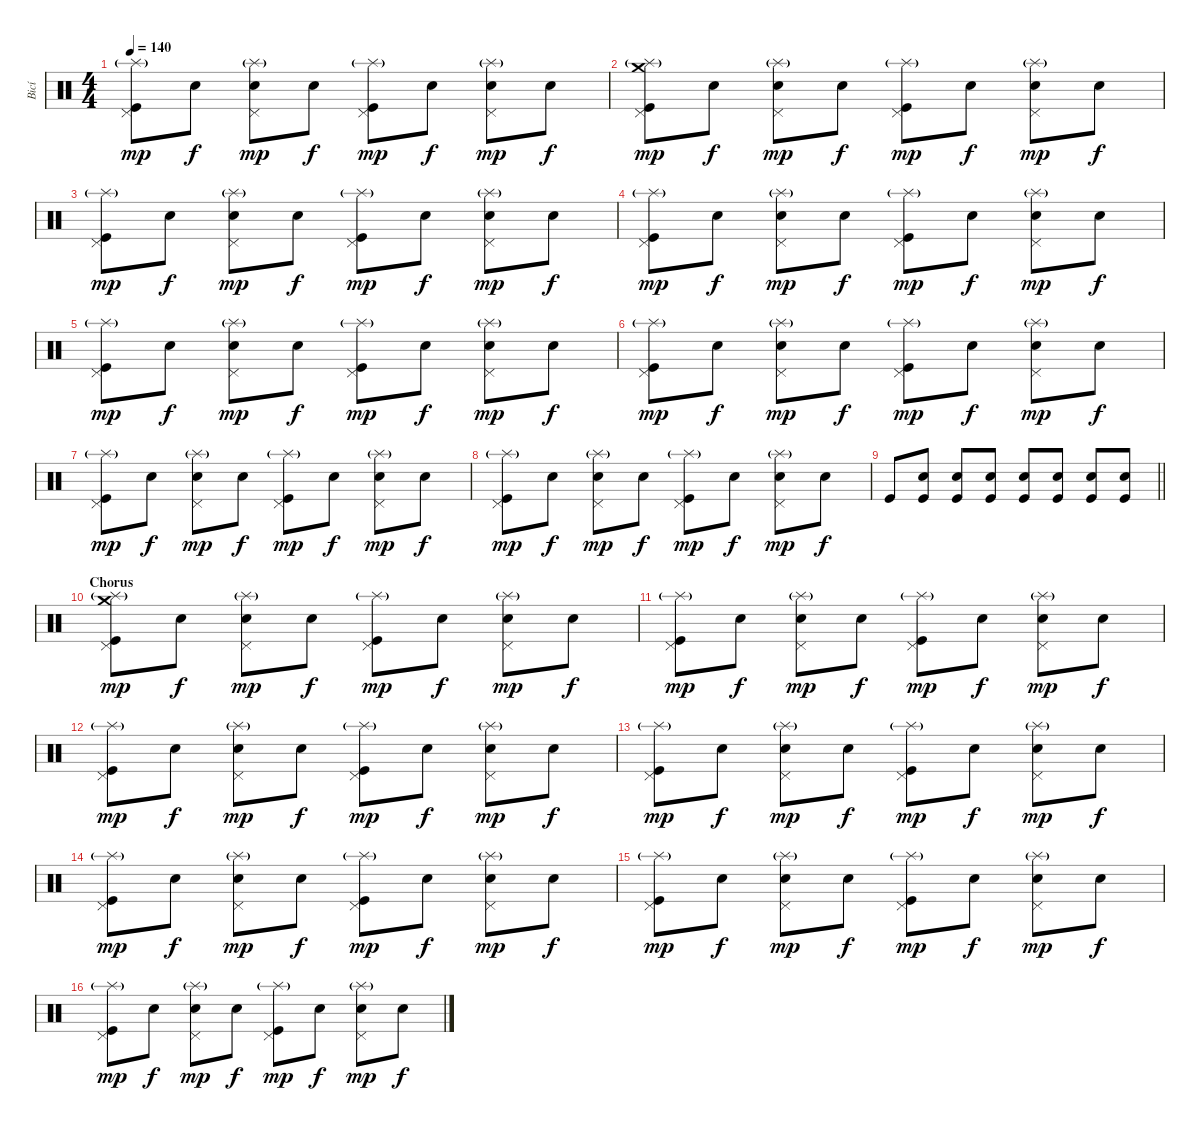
\track ("Bicí" "Bicí") {instrument percussion}
\staff {score}
\articulation defaults
\ts (4 4)
\tempo 140
\clef neutral
\ks c
("Splash (hit)"{g} "Pedal Hi-Hat (hit)" "Kick (hit)").8{dy mp} "Snare (hit)".8{dy f} ("Splash (hit)"{g} "Pedal Hi-Hat (hit)" "Electric Snare (hit)").8{dy mp} "Snare (hit)".8{dy f} ("Splash (hit)"{g} "Pedal Hi-Hat (hit)" "Kick (hit)").8{dy mp} "Snare (hit)".8{dy f} ("Splash (hit)"{g} "Pedal Hi-Hat (hit)" "Electric Snare (hit)").8{dy mp} "Snare (hit)".8{dy f} |
("Crash medium (hit)" "Splash (hit)"{g} "Pedal Hi-Hat (hit)" "Kick (hit)").8{dy mp} "Snare (hit)".8{dy f} ("Splash (hit)"{g} "Pedal Hi-Hat (hit)" "Electric Snare (hit)").8{dy mp} "Snare (hit)".8{dy f} ("Splash (hit)"{g} "Pedal Hi-Hat (hit)" "Kick (hit)").8{dy mp} "Snare (hit)".8{dy f} ("Splash (hit)"{g} "Pedal Hi-Hat (hit)" "Electric Snare (hit)").8{dy mp} "Snare (hit)".8{dy f} |
("Splash (hit)"{g} "Pedal Hi-Hat (hit)" "Kick (hit)").8{dy mp} "Snare (hit)".8{dy f} ("Splash (hit)"{g} "Pedal Hi-Hat (hit)" "Electric Snare (hit)").8{dy mp} "Snare (hit)".8{dy f} ("Splash (hit)"{g} "Pedal Hi-Hat (hit)" "Kick (hit)").8{dy mp} "Snare (hit)".8{dy f} ("Splash (hit)"{g} "Pedal Hi-Hat (hit)" "Electric Snare (hit)").8{dy mp} "Snare (hit)".8{dy f} |
("Splash (hit)"{g} "Pedal Hi-Hat (hit)" "Kick (hit)").8{dy mp} "Snare (hit)".8{dy f} ("Splash (hit)"{g} "Pedal Hi-Hat (hit)" "Electric Snare (hit)").8{dy mp} "Snare (hit)".8{dy f} ("Splash (hit)"{g} "Pedal Hi-Hat (hit)" "Kick (hit)").8{dy mp} "Snare (hit)".8{dy f} ("Splash (hit)"{g} "Pedal Hi-Hat (hit)" "Electric Snare (hit)").8{dy mp} "Snare (hit)".8{dy f} |
("Splash (hit)"{g} "Pedal Hi-Hat (hit)" "Kick (hit)").8{dy mp} "Snare (hit)".8{dy f} ("Splash (hit)"{g} "Pedal Hi-Hat (hit)" "Electric Snare (hit)").8{dy mp} "Snare (hit)".8{dy f} ("Splash (hit)"{g} "Pedal Hi-Hat (hit)" "Kick (hit)").8{dy mp} "Snare (hit)".8{dy f} ("Splash (hit)"{g} "Pedal Hi-Hat (hit)" "Electric Snare (hit)").8{dy mp} "Snare (hit)".8{dy f} |
("Splash (hit)"{g} "Pedal Hi-Hat (hit)" "Kick (hit)").8{dy mp} "Snare (hit)".8{dy f} ("Splash (hit)"{g} "Pedal Hi-Hat (hit)" "Electric Snare (hit)").8{dy mp} "Snare (hit)".8{dy f} ("Splash (hit)"{g} "Pedal Hi-Hat (hit)" "Kick (hit)").8{dy mp} "Snare (hit)".8{dy f} ("Splash (hit)"{g} "Pedal Hi-Hat (hit)" "Electric Snare (hit)").8{dy mp} "Snare (hit)".8{dy f} |
("Splash (hit)"{g} "Pedal Hi-Hat (hit)" "Kick (hit)").8{dy mp} "Snare (hit)".8{dy f} ("Splash (hit)"{g} "Pedal Hi-Hat (hit)" "Electric Snare (hit)").8{dy mp} "Snare (hit)".8{dy f} ("Splash (hit)"{g} "Pedal Hi-Hat (hit)" "Kick (hit)").8{dy mp} "Snare (hit)".8{dy f} ("Splash (hit)"{g} "Pedal Hi-Hat (hit)" "Electric Snare (hit)").8{dy mp} "Snare (hit)".8{dy f} |
("Splash (hit)"{g} "Pedal Hi-Hat (hit)" "Kick (hit)").8{dy mp} "Snare (hit)".8{dy f} ("Splash (hit)"{g} "Pedal Hi-Hat (hit)" "Electric Snare (hit)").8{dy mp} "Snare (hit)".8{dy f} ("Splash (hit)"{g} "Pedal Hi-Hat (hit)" "Kick (hit)").8{dy mp} "Snare (hit)".8{dy f} ("Splash (hit)"{g} "Pedal Hi-Hat (hit)" "Electric Snare (hit)").8{dy mp} "Snare (hit)".8{dy f} |
\barLineRight lightlight "Kick (hit)".8{volume 0}
("Kick (hit)" "Electric Snare (hit)").8{volume 16} ("Kick (hit)" "Electric Snare (hit)").8 ("Kick (hit)" "Electric Snare (hit)").8 ("Kick (hit)" "Electric Snare (hit)").8 ("Kick (hit)" "Electric Snare (hit)").8 ("Kick (hit)" "Electric Snare (hit)").8 ("Kick (hit)" "Electric Snare (hit)").8 |
\section ("" "Chorus")
("Crash medium (hit)" "Splash (hit)"{g} "Pedal Hi-Hat (hit)" "Kick (hit)").8{dy mp} "Snare (hit)".8{dy f} ("Splash (hit)"{g} "Pedal Hi-Hat (hit)" "Electric Snare (hit)").8{dy mp} "Snare (hit)".8{dy f} ("Splash (hit)"{g} "Pedal Hi-Hat (hit)" "Kick (hit)").8{dy mp} "Snare (hit)".8{dy f} ("Splash (hit)"{g} "Pedal Hi-Hat (hit)" "Electric Snare (hit)").8{dy mp} "Snare (hit)".8{dy f} |
("Splash (hit)"{g} "Pedal Hi-Hat (hit)" "Kick (hit)").8{dy mp} "Snare (hit)".8{dy f} ("Splash (hit)"{g} "Pedal Hi-Hat (hit)" "Electric Snare (hit)").8{dy mp} "Snare (hit)".8{dy f} ("Splash (hit)"{g} "Pedal Hi-Hat (hit)" "Kick (hit)").8{dy mp} "Snare (hit)".8{dy f} ("Splash (hit)"{g} "Pedal Hi-Hat (hit)" "Electric Snare (hit)").8{dy mp} "Snare (hit)".8{dy f} |
("Splash (hit)"{g} "Pedal Hi-Hat (hit)" "Kick (hit)").8{dy mp} "Snare (hit)".8{dy f} ("Splash (hit)"{g} "Pedal Hi-Hat (hit)" "Electric Snare (hit)").8{dy mp} "Snare (hit)".8{dy f} ("Splash (hit)"{g} "Pedal Hi-Hat (hit)" "Kick (hit)").8{dy mp} "Snare (hit)".8{dy f} ("Splash (hit)"{g} "Pedal Hi-Hat (hit)" "Electric Snare (hit)").8{dy mp} "Snare (hit)".8{dy f} |
("Splash (hit)"{g} "Pedal Hi-Hat (hit)" "Kick (hit)").8{dy mp} "Snare (hit)".8{dy f} ("Splash (hit)"{g} "Pedal Hi-Hat (hit)" "Electric Snare (hit)").8{dy mp} "Snare (hit)".8{dy f} ("Splash (hit)"{g} "Pedal Hi-Hat (hit)" "Kick (hit)").8{dy mp} "Snare (hit)".8{dy f} ("Splash (hit)"{g} "Pedal Hi-Hat (hit)" "Electric Snare (hit)").8{dy mp} "Snare (hit)".8{dy f} |
("Splash (hit)"{g} "Pedal Hi-Hat (hit)" "Kick (hit)").8{dy mp} "Snare (hit)".8{dy f} ("Splash (hit)"{g} "Pedal Hi-Hat (hit)" "Electric Snare (hit)").8{dy mp} "Snare (hit)".8{dy f} ("Splash (hit)"{g} "Pedal Hi-Hat (hit)" "Kick (hit)").8{dy mp} "Snare (hit)".8{dy f} ("Splash (hit)"{g} "Pedal Hi-Hat (hit)" "Electric Snare (hit)").8{dy mp} "Snare (hit)".8{dy f} |
("Splash (hit)"{g} "Pedal Hi-Hat (hit)" "Kick (hit)").8{dy mp} "Snare (hit)".8{dy f} ("Splash (hit)"{g} "Pedal Hi-Hat (hit)" "Electric Snare (hit)").8{dy mp} "Snare (hit)".8{dy f} ("Splash (hit)"{g} "Pedal Hi-Hat (hit)" "Kick (hit)").8{dy mp} "Snare (hit)".8{dy f} ("Splash (hit)"{g} "Pedal Hi-Hat (hit)" "Electric Snare (hit)").8{dy mp} "Snare (hit)".8{dy f} |
("Splash (hit)"{g} "Pedal Hi-Hat (hit)" "Kick (hit)").8{dy mp} "Snare (hit)".8{dy f} ("Splash (hit)"{g} "Pedal Hi-Hat (hit)" "Electric Snare (hit)").8{dy mp} "Snare (hit)".8{dy f} ("Splash (hit)"{g} "Pedal Hi-Hat (hit)" "Kick (hit)").8{dy mp} "Snare (hit)".8{dy f} ("Splash (hit)"{g} "Pedal Hi-Hat (hit)" "Electric Snare (hit)").8{dy mp} "Snare (hit)".8{dy f}
